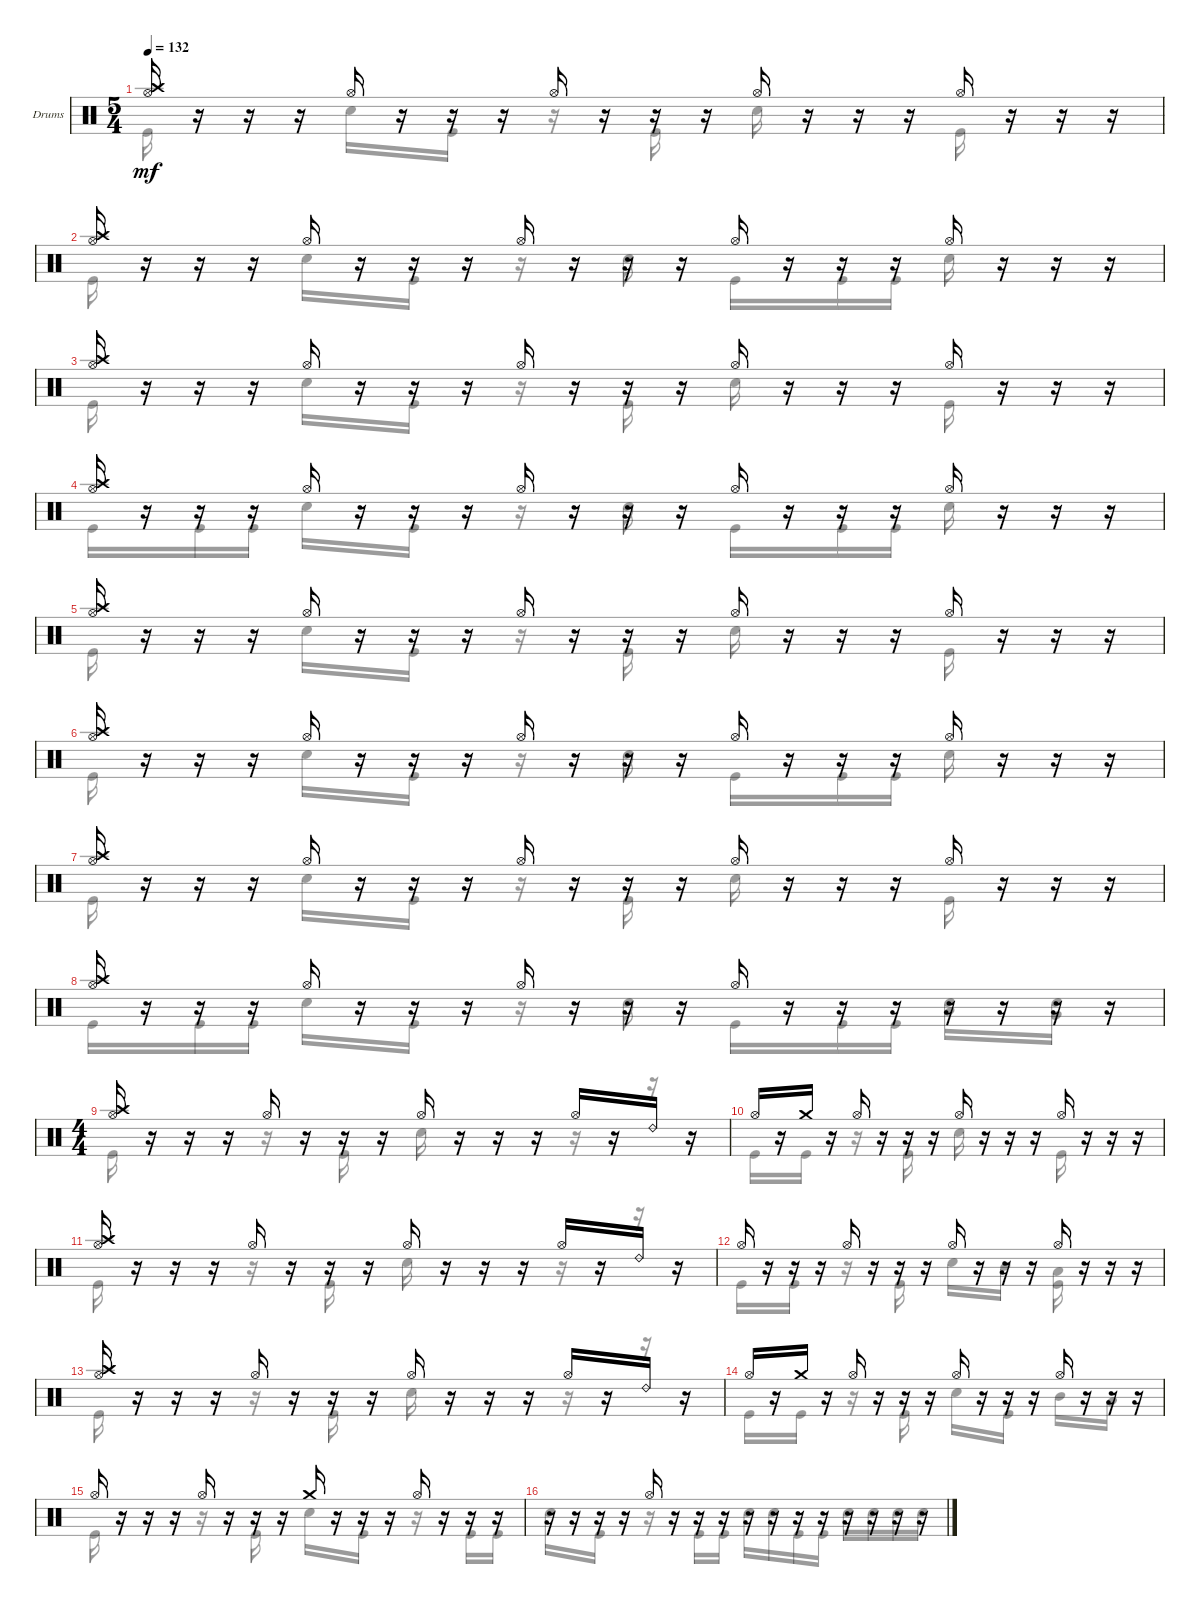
\defaultSystemsLayout 4
\bracketExtendMode groupsimilarinstruments
\firstSystemTrackNameOrientation horizontal
\otherSystemsTrackNameOrientation horizontal
\track ("Drumkit" "Drums") {instrument percussion}
\staff {score}
\articulation defaults
\voice
\ts (5 4)
\tempo 132
\clef neutral
\ks c
("Hi-Hat (open)" "Crash high (hit)").16{dy mf} r.16 r.16 r.16 "Hi-Hat (open)".16 r.16 r.16 r.16 "Hi-Hat (open)".16 r.16 r.16 r.16 "Hi-Hat (open)".16 r.16 r.16 r.16 "Hi-Hat (open)".16 r.16 r.16 r.16 |
("Hi-Hat (open)" "Crash high (hit)").16 r.16 r.16 r.16 "Hi-Hat (open)".16 r.16 r.16 r.16 "Hi-Hat (open)".16 r.16 r.16 r.16 "Hi-Hat (open)".16 r.16 r.16 r.16 "Hi-Hat (open)".16 r.16 r.16 r.16 |
("Hi-Hat (open)" "Crash high (hit)").16 r.16 r.16 r.16 "Hi-Hat (open)".16 r.16 r.16 r.16 "Hi-Hat (open)".16 r.16 r.16 r.16 "Hi-Hat (open)".16 r.16 r.16 r.16 "Hi-Hat (open)".16 r.16 r.16 r.16 |
("Hi-Hat (open)" "Crash high (hit)").16 r.16 r.16 r.16 "Hi-Hat (open)".16 r.16 r.16 r.16 "Hi-Hat (open)".16 r.16 r.16 r.16 "Hi-Hat (open)".16 r.16 r.16 r.16 "Hi-Hat (open)".16 r.16 r.16 r.16 |
("Hi-Hat (open)" "Crash high (hit)").16 r.16 r.16 r.16 "Hi-Hat (open)".16 r.16 r.16 r.16 "Hi-Hat (open)".16 r.16 r.16 r.16 "Hi-Hat (open)".16 r.16 r.16 r.16 "Hi-Hat (open)".16 r.16 r.16 r.16 |
("Hi-Hat (open)" "Crash high (hit)").16 r.16 r.16 r.16 "Hi-Hat (open)".16 r.16 r.16 r.16 "Hi-Hat (open)".16 r.16 r.16 r.16 "Hi-Hat (open)".16 r.16 r.16 r.16 "Hi-Hat (open)".16 r.16 r.16 r.16 |
("Hi-Hat (open)" "Crash high (hit)").16 r.16 r.16 r.16 "Hi-Hat (open)".16 r.16 r.16 r.16 "Hi-Hat (open)".16 r.16 r.16 r.16 "Hi-Hat (open)".16 r.16 r.16 r.16 "Hi-Hat (open)".16 r.16 r.16 r.16 |
("Hi-Hat (open)" "Crash high (hit)").16 r.16 r.16 r.16 "Hi-Hat (open)".16 r.16 r.16 r.16 "Hi-Hat (open)".16 r.16 r.16 r.16 "Hi-Hat (open)".16 r.16 r.16 r.16 r.16 r.16 r.16 r.16 |
\ts (4 4)
("Crash high (hit)" "Hi-Hat (open)").16 r.16 r.16 r.16 "Hi-Hat (open)".16 r.16 r.16 r.16 "Hi-Hat (open)".16 r.16 r.16 r.16 "Hi-Hat (open)".16 r.16 "Ride (bell) 2".16 r.16 |
"Hi-Hat (open)".16 r.16 "Crash medium (hit)".16 r.16 "Hi-Hat (open)".16 r.16 r.16 r.16 "Hi-Hat (open)".16 r.16 r.16 r.16 "Hi-Hat (open)".16 r.16 r.16 r.16 |
("Crash high (hit)" "Hi-Hat (open)").16 r.16 r.16 r.16 "Hi-Hat (open)".16 r.16 r.16 r.16 "Hi-Hat (open)".16 r.16 r.16 r.16 "Hi-Hat (open)".16 r.16 "Ride (bell) 2".16 r.16 |
"Hi-Hat (open)".16 r.16 r.16 r.16 "Hi-Hat (open)".16 r.16 r.16 r.16 "Hi-Hat (open)".16 r.16 r.16 r.16 "Hi-Hat (open)".16 r.16 r.16 r.16 |
("Crash high (hit)" "Hi-Hat (open)").16 r.16 r.16 r.16 "Hi-Hat (open)".16 r.16 r.16 r.16 "Hi-Hat (open)".16 r.16 r.16 r.16 "Hi-Hat (open)".16 r.16 "Ride (bell) 2".16 r.16 |
"Hi-Hat (open)".16 r.16 "Crash medium (hit)".16 r.16 "Hi-Hat (open)".16 r.16 r.16 r.16 "Hi-Hat (open)".16 r.16 r.16 r.16 "Hi-Hat (open)".16 r.16 r.16 r.16 |
"Hi-Hat (open)".16 r.16 r.16 r.16 "Hi-Hat (open)".16 r.16 r.16 r.16 "Crash medium (hit)".16 r.16 r.16 r.16 "Hi-Hat (open)".16 r.16 r.16 r.16 |
r.16 r.16 r.16 r.16 "Hi-Hat (open)".16 r.16 r.16 r.16 r.16 r.16 r.16 r.16 r.16 r.16 r.16 r.16
\voice
\clef neutral
\ottava regular
\simile none
\ks c "Kick (hit)".16{dy mf}
r.16 r.16 r.16 "Snare (hit) 2".16 r.16 "Kick (hit)".16 r.16 r.16 r.16 "Kick (hit)".16 r.16 "Snare (hit) 2".16 r.16 r.16 r.16 "Kick (hit)".16 r.16 r.16 r.16 |
"Kick (hit)".16 r.16 r.16 r.16 "Snare (hit) 2".16 r.16 "Kick (hit)".16 r.16 r.16 r.16 "Snare (hit) 2".16 r.16 "Kick (hit)".16 r.16 "Kick (hit)".16 "Kick (hit)".16 "Snare (hit) 2".16 r.16 r.16 r.16 |
"Kick (hit)".16 r.16 r.16 r.16 "Snare (hit) 2".16 r.16 "Kick (hit)".16 r.16 r.16 r.16 "Kick (hit)".16 r.16 "Snare (hit) 2".16 r.16 r.16 r.16 "Kick (hit)".16 r.16 r.16 r.16 |
"Kick (hit)".16 r.16 "Kick (hit)".16 "Kick (hit)".16 "Snare (hit) 2".16 r.16 "Kick (hit)".16 r.16 r.16 r.16 "Snare (hit) 2".16 r.16 "Kick (hit)".16 r.16 "Kick (hit)".16 "Kick (hit)".16 "Snare (hit) 2".16 r.16 r.16 r.16 |
"Kick (hit)".16 r.16 r.16 r.16 "Snare (hit) 2".16 r.16 "Kick (hit)".16 r.16 r.16 r.16 "Kick (hit)".16 r.16 "Snare (hit) 2".16 r.16 r.16 r.16 "Kick (hit)".16 r.16 r.16 r.16 |
"Kick (hit)".16 r.16 r.16 r.16 "Snare (hit) 2".16 r.16 "Kick (hit)".16 r.16 r.16 r.16 "Snare (hit) 2".16 r.16 "Kick (hit)".16 r.16 "Kick (hit)".16 "Kick (hit)".16 "Snare (hit) 2".16 r.16 r.16 r.16 |
"Kick (hit)".16 r.16 r.16 r.16 "Snare (hit) 2".16 r.16 "Kick (hit)".16 r.16 r.16 r.16 "Kick (hit)".16 r.16 "Snare (hit) 2".16 r.16 r.16 r.16 "Kick (hit)".16 r.16 r.16 r.16 |
"Kick (hit)".16 r.16 "Kick (hit)".16 "Kick (hit)".16 "Snare (hit) 2".16 r.16 "Kick (hit)".16 r.16 r.16 r.16 "Snare (hit) 2".16 r.16 "Kick (hit)".16 r.16 "Kick (hit)".16 "Kick (hit)".16 ("Snare (hit) 2" "Low Tom (hit)").16 r.16 ("Snare (hit) 2" "Very Low Tom (hit)").16 r.16 |
"Kick (hit)".16 r.16 r.16 r.16 r.16 r.16 "Kick (hit)".16 r.16 "Snare (hit) 2".16 r.16 r.16 r.16 r.16 r.16 r.16 r.16 |
"Kick (hit)".16 r.16 "Kick (hit)".16 r.16 r.16 r.16 "Kick (hit)".16 r.16 "Snare (hit) 2".16 r.16 r.16 r.16 "Kick (hit)".16 r.16 r.16 r.16 |
"Kick (hit)".16 r.16 r.16 r.16 r.16 r.16 "Kick (hit)".16 r.16 "Snare (hit) 2".16 r.16 r.16 r.16 r.16 r.16 r.16 r.16 |
"Kick (hit)".16 r.16 "Kick (hit)".16 r.16 r.16 r.16 "Kick (hit)".16 r.16 "Snare (hit) 2".16 r.16 "Mid Tom (hit)".16 r.16 ("Kick (hit)" "Low Tom (hit)").16 r.16 r.16 r.16 |
"Kick (hit)".16 r.16 r.16 r.16 r.16 r.16 "Kick (hit)".16 r.16 "Snare (hit) 2".16 r.16 r.16 r.16 r.16 r.16 r.16 r.16 |
"Kick (hit)".16 r.16 "Kick (hit)".16 r.16 r.16 r.16 "Kick (hit)".16 r.16 "Snare (hit) 2".16 r.16 "Kick (hit)".16 r.16 "Mid Tom (hit)".16 r.16 "Low Tom (hit)".16 r.16 |
"Kick (hit)".16 r.16 r.16 r.16 r.16 r.16 "Kick (hit)".16 r.16 "Snare (hit) 2".16 r.16 "Kick (hit)".16 r.16 r.16 r.16 "Kick (hit)".16 "Kick (hit)".16 |
"Snare (hit) 2".16 r.16 "Kick (hit)".16 r.16 r.16 r.16 "Kick (hit)".16 "Kick (hit)".16 "Snare (hit) 2".16 "Snare (hit) 2".16 "Kick (hit)".16 "Kick (hit)".16 "Snare (hit) 2".16 "Snare (hit) 2".16 "Snare (hit) 2".16 "Snare (hit) 2".16
